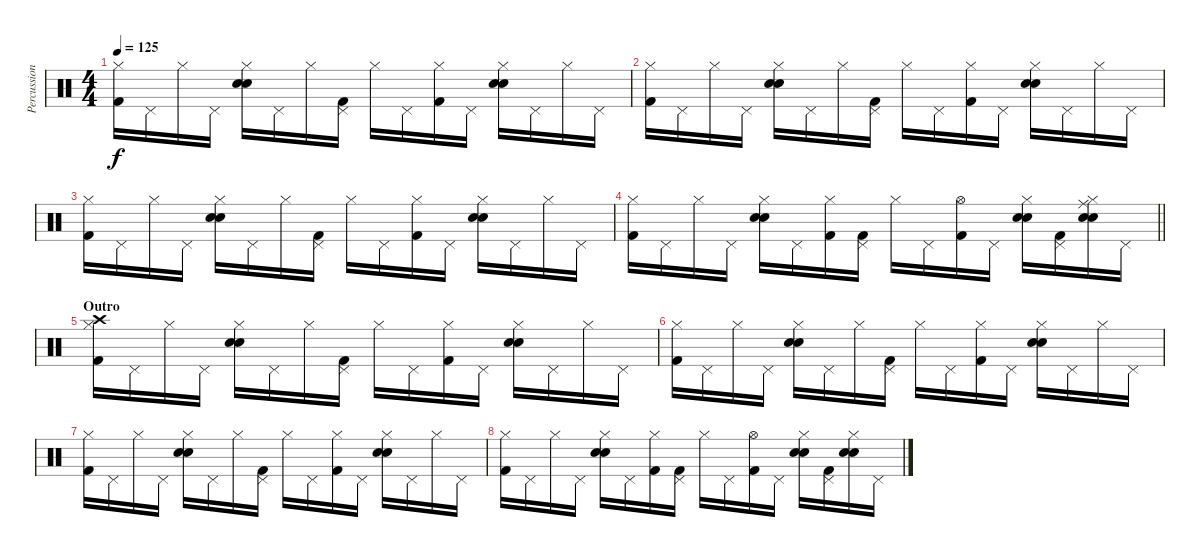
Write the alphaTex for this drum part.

\track ("Percussion" "Percussion") {instrument percussion}
\staff {score}
\articulation defaults
\ts (4 4)
\tempo 125
\clef neutral
\ks c
("Hi-Hat (closed)" "Kick (hit) 2").16{dy f} "Pedal Hi-Hat (hit)".16 "Hi-Hat (closed)".16 "Pedal Hi-Hat (hit)".16 ("Electric Snare (hit)" "Electric Snare (hit)" "Hi-Hat (closed)").16 "Pedal Hi-Hat (hit)".16 "Hi-Hat (closed)".16 ("Pedal Hi-Hat (hit)" "Kick (hit) 2").16 "Hi-Hat (closed)".16 "Pedal Hi-Hat (hit)".16 ("Hi-Hat (closed)" "Kick (hit) 2").16 "Pedal Hi-Hat (hit)".16 ("Electric Snare (hit)" "Electric Snare (hit)" "Hi-Hat (closed)").16 "Pedal Hi-Hat (hit)".16 "Hi-Hat (closed)".16 "Pedal Hi-Hat (hit)".16 |
("Hi-Hat (closed)" "Kick (hit) 2").16 "Pedal Hi-Hat (hit)".16 "Hi-Hat (closed)".16 "Pedal Hi-Hat (hit)".16 ("Electric Snare (hit)" "Electric Snare (hit)" "Hi-Hat (closed)").16 "Pedal Hi-Hat (hit)".16 "Hi-Hat (closed)".16 ("Pedal Hi-Hat (hit)" "Kick (hit) 2").16 "Hi-Hat (closed)".16 "Pedal Hi-Hat (hit)".16 ("Hi-Hat (closed)" "Kick (hit) 2").16 "Pedal Hi-Hat (hit)".16 ("Electric Snare (hit)" "Electric Snare (hit)" "Hi-Hat (closed)").16 "Pedal Hi-Hat (hit)".16 "Hi-Hat (closed)".16 "Pedal Hi-Hat (hit)".16 |
("Hi-Hat (closed)" "Kick (hit) 2").16 "Pedal Hi-Hat (hit)".16 "Hi-Hat (closed)".16 "Pedal Hi-Hat (hit)".16 ("Electric Snare (hit)" "Electric Snare (hit)" "Hi-Hat (closed)").16 "Pedal Hi-Hat (hit)".16 "Hi-Hat (closed)".16 ("Pedal Hi-Hat (hit)" "Kick (hit) 2").16 "Hi-Hat (closed)".16 "Pedal Hi-Hat (hit)".16 ("Hi-Hat (closed)" "Kick (hit) 2").16 "Pedal Hi-Hat (hit)".16 ("Electric Snare (hit)" "Electric Snare (hit)" "Hi-Hat (closed)").16 "Pedal Hi-Hat (hit)".16 "Hi-Hat (closed)".16 "Pedal Hi-Hat (hit)".16 |
\barLineRight lightlight
("Hi-Hat (closed)" "Kick (hit) 2").16 "Pedal Hi-Hat (hit)".16 "Hi-Hat (closed)".16 "Pedal Hi-Hat (hit)".16 ("Electric Snare (hit)" "Electric Snare (hit)" "Hi-Hat (closed)").16 "Pedal Hi-Hat (hit)".16 ("Hi-Hat (closed)" "Kick (hit) 2").16 ("Pedal Hi-Hat (hit)" "Kick (hit) 2").16 "Hi-Hat (closed)".16 "Pedal Hi-Hat (hit)".16 ("Hi-Hat (open)" "Kick (hit) 2").16 "Pedal Hi-Hat (hit)".16 ("Electric Snare (hit)" "Electric Snare (hit)" "Hi-Hat (closed)").16 ("Pedal Hi-Hat (hit)" "Kick (hit) 2").16 ("Ride (middle)" "Electric Snare (hit)" "Electric Snare (hit)" "Hi-Hat (closed)").16 "Pedal Hi-Hat (hit)".16 |
\section ("" "Outro")
("Crash high (hit)" "Hi-Hat (closed)" "Kick (hit) 2").16 "Pedal Hi-Hat (hit)".16 "Hi-Hat (closed)".16 "Pedal Hi-Hat (hit)".16 ("Electric Snare (hit)" "Electric Snare (hit)" "Hi-Hat (closed)").16 "Pedal Hi-Hat (hit)".16 "Hi-Hat (closed)".16 ("Pedal Hi-Hat (hit)" "Kick (hit) 2").16 "Hi-Hat (closed)".16 "Pedal Hi-Hat (hit)".16 ("Hi-Hat (closed)" "Kick (hit) 2").16 "Pedal Hi-Hat (hit)".16 ("Electric Snare (hit)" "Electric Snare (hit)" "Hi-Hat (closed)").16 "Pedal Hi-Hat (hit)".16 "Hi-Hat (closed)".16 "Pedal Hi-Hat (hit)".16 |
("Hi-Hat (closed)" "Kick (hit) 2").16 "Pedal Hi-Hat (hit)".16 "Hi-Hat (closed)".16 "Pedal Hi-Hat (hit)".16 ("Electric Snare (hit)" "Electric Snare (hit)" "Hi-Hat (closed)").16 "Pedal Hi-Hat (hit)".16 "Hi-Hat (closed)".16 ("Pedal Hi-Hat (hit)" "Kick (hit) 2").16 "Hi-Hat (closed)".16 "Pedal Hi-Hat (hit)".16 ("Hi-Hat (closed)" "Kick (hit) 2").16 "Pedal Hi-Hat (hit)".16 ("Electric Snare (hit)" "Electric Snare (hit)" "Hi-Hat (closed)").16 "Pedal Hi-Hat (hit)".16 "Hi-Hat (closed)".16 "Pedal Hi-Hat (hit)".16 |
("Hi-Hat (closed)" "Kick (hit) 2").16 "Pedal Hi-Hat (hit)".16 "Hi-Hat (closed)".16 "Pedal Hi-Hat (hit)".16 ("Electric Snare (hit)" "Electric Snare (hit)" "Hi-Hat (closed)").16 "Pedal Hi-Hat (hit)".16 "Hi-Hat (closed)".16 ("Pedal Hi-Hat (hit)" "Kick (hit) 2").16 "Hi-Hat (closed)".16 "Pedal Hi-Hat (hit)".16 ("Hi-Hat (closed)" "Kick (hit) 2").16 "Pedal Hi-Hat (hit)".16 ("Electric Snare (hit)" "Electric Snare (hit)" "Hi-Hat (closed)").16 "Pedal Hi-Hat (hit)".16 "Hi-Hat (closed)".16 "Pedal Hi-Hat (hit)".16 |
("Hi-Hat (closed)" "Kick (hit) 2").16 "Pedal Hi-Hat (hit)".16 "Hi-Hat (closed)".16 "Pedal Hi-Hat (hit)".16 ("Electric Snare (hit)" "Electric Snare (hit)" "Hi-Hat (closed)").16 "Pedal Hi-Hat (hit)".16 ("Hi-Hat (closed)" "Kick (hit) 2").16 ("Pedal Hi-Hat (hit)" "Kick (hit) 2").16 "Hi-Hat (closed)".16 "Pedal Hi-Hat (hit)".16 ("Hi-Hat (open)" "Kick (hit) 2").16 "Pedal Hi-Hat (hit)".16 ("Electric Snare (hit)" "Electric Snare (hit)" "Hi-Hat (closed)").16 ("Pedal Hi-Hat (hit)" "Kick (hit) 2").16 ("Electric Snare (hit)" "Electric Snare (hit)" "Hi-Hat (closed)").16 "Pedal Hi-Hat (hit)".16
